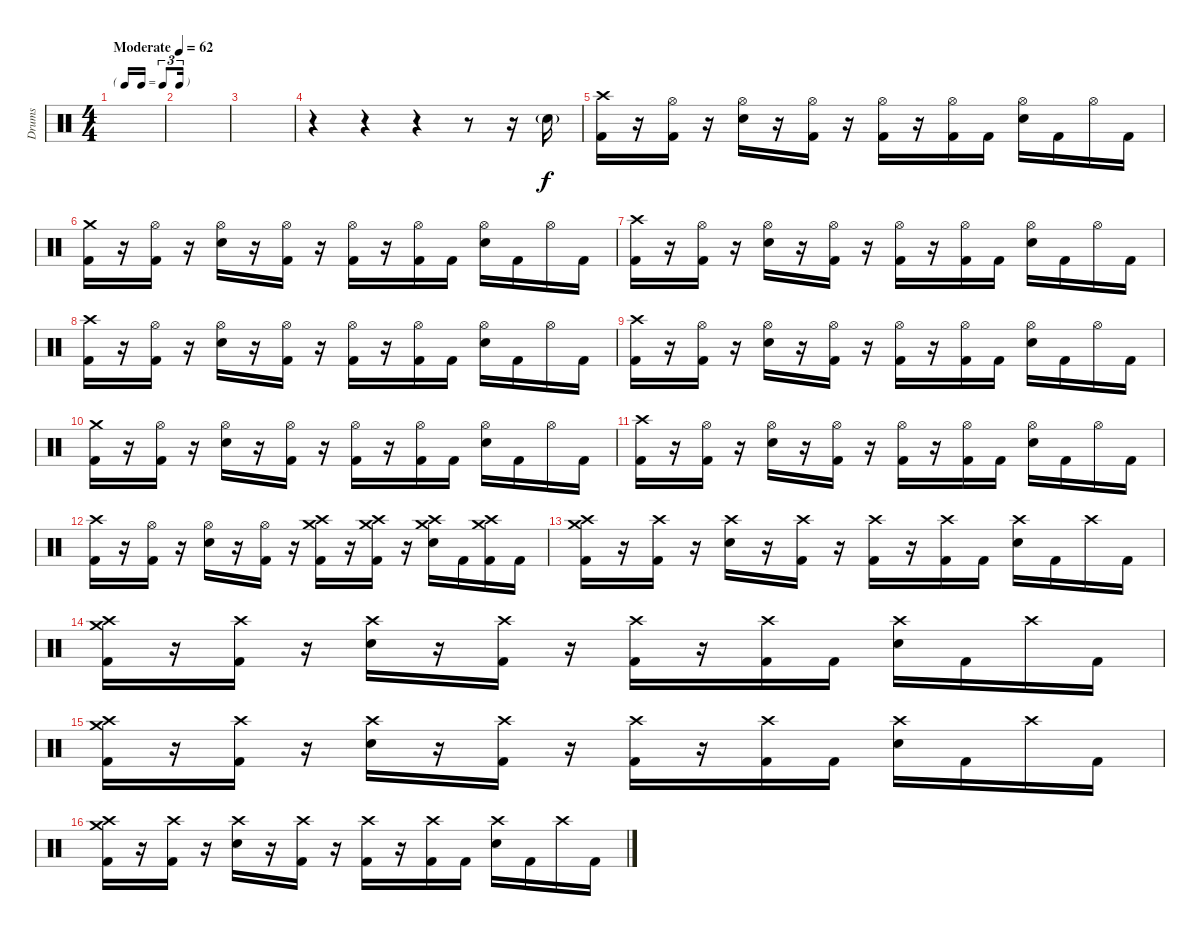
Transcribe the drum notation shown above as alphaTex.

\track ("Drums" "Drums") {instrument percussion}
\staff
\articulation defaults
\ts (4 4)
\tf triplet16th
\tempo (62 "Moderate")
\clef neutral
\ks c
|
|
|
r.4 r.4 r.4 r.8 r.16 "Electric Snare (hit)"{g}.16 |
("Kick (hit) 2" "Crash high (hit)").16{dy f} r.16 ("Kick (hit) 2" "Hi-Hat (open)").16 r.16 ("Electric Snare (hit)" "Hi-Hat (open)").16 r.16 ("Kick (hit) 2" "Hi-Hat (open)").16 r.16 ("Kick (hit) 2" "Hi-Hat (open)").16 r.16 ("Kick (hit) 2" "Hi-Hat (open)").16 "Kick (hit) 2".16 ("Electric Snare (hit)" "Hi-Hat (open)").16 "Kick (hit) 2".16 "Hi-Hat (open)".16 "Kick (hit) 2".16 |
("Kick (hit) 2" "Crash medium (hit)").16 r.16 ("Kick (hit) 2" "Hi-Hat (open)").16 r.16 ("Electric Snare (hit)" "Hi-Hat (open)").16 r.16 ("Kick (hit) 2" "Hi-Hat (open)").16 r.16 ("Kick (hit) 2" "Hi-Hat (open)").16 r.16 ("Kick (hit) 2" "Hi-Hat (open)").16 "Kick (hit) 2".16 ("Electric Snare (hit)" "Hi-Hat (open)").16 "Kick (hit) 2".16 "Hi-Hat (open)".16 "Kick (hit) 2".16 |
("Kick (hit) 2" "Crash high (hit)").16 r.16 ("Kick (hit) 2" "Hi-Hat (open)").16 r.16 ("Electric Snare (hit)" "Hi-Hat (open)").16 r.16 ("Kick (hit) 2" "Hi-Hat (open)").16 r.16 ("Kick (hit) 2" "Hi-Hat (open)").16 r.16 ("Kick (hit) 2" "Hi-Hat (open)").16 "Kick (hit) 2".16 ("Electric Snare (hit)" "Hi-Hat (open)").16 "Kick (hit) 2".16 "Hi-Hat (open)".16 "Kick (hit) 2".16 |
("Kick (hit) 2" "Crash high (hit)").16 r.16 ("Kick (hit) 2" "Hi-Hat (open)").16 r.16 ("Electric Snare (hit)" "Hi-Hat (open)").16 r.16 ("Kick (hit) 2" "Hi-Hat (open)").16 r.16 ("Kick (hit) 2" "Hi-Hat (open)").16 r.16 ("Kick (hit) 2" "Hi-Hat (open)").16 "Kick (hit) 2".16 ("Electric Snare (hit)" "Hi-Hat (open)").16 "Kick (hit) 2".16 "Hi-Hat (open)".16 "Kick (hit) 2".16 |
("Kick (hit) 2" "Crash high (hit)").16 r.16 ("Kick (hit) 2" "Hi-Hat (open)").16 r.16 ("Electric Snare (hit)" "Hi-Hat (open)").16 r.16 ("Kick (hit) 2" "Hi-Hat (open)").16 r.16 ("Kick (hit) 2" "Hi-Hat (open)").16 r.16 ("Kick (hit) 2" "Hi-Hat (open)").16 "Kick (hit) 2".16 ("Electric Snare (hit)" "Hi-Hat (open)").16 "Kick (hit) 2".16 "Hi-Hat (open)".16 "Kick (hit) 2".16 |
("Kick (hit) 2" "Crash medium (hit)").16 r.16 ("Kick (hit) 2" "Hi-Hat (open)").16 r.16 ("Electric Snare (hit)" "Hi-Hat (open)").16 r.16 ("Kick (hit) 2" "Hi-Hat (open)").16 r.16 ("Kick (hit) 2" "Hi-Hat (open)").16 r.16 ("Kick (hit) 2" "Hi-Hat (open)").16 "Kick (hit) 2".16 ("Electric Snare (hit)" "Hi-Hat (open)").16 "Kick (hit) 2".16 "Hi-Hat (open)".16 "Kick (hit) 2".16 |
("Kick (hit) 2" "Crash high (hit)").16 r.16 ("Kick (hit) 2" "Hi-Hat (open)").16 r.16 ("Electric Snare (hit)" "Hi-Hat (open)").16 r.16 ("Kick (hit) 2" "Hi-Hat (open)").16 r.16 ("Kick (hit) 2" "Hi-Hat (open)").16 r.16 ("Kick (hit) 2" "Hi-Hat (open)").16 "Kick (hit) 2".16 ("Electric Snare (hit)" "Hi-Hat (open)").16 "Kick (hit) 2".16 "Hi-Hat (open)".16 "Kick (hit) 2".16 |
("Kick (hit) 2" "Crash high (hit)").16 r.16 ("Kick (hit) 2" "Hi-Hat (open)").16 r.16 ("Electric Snare (hit)" "Hi-Hat (open)").16 r.16 ("Kick (hit) 2" "Hi-Hat (open)").16 r.16 ("Kick (hit) 2" "Crash high (hit)" "Crash medium (hit)").16 r.16 ("Kick (hit) 2" "Crash high (hit)" "Crash medium (hit)").16 r.16 ("Electric Snare (hit)" "Crash high (hit)" "Crash medium (hit)").16 "Kick (hit) 2".16 ("Kick (hit) 2" "Crash high (hit)" "Crash medium (hit)").16 "Kick (hit) 2".16 |
("Kick (hit) 2" "Crash high (hit)" "Crash medium (hit)").16 r.16 ("Kick (hit) 2" "Crash high (hit)").16 r.16 ("Electric Snare (hit)" "Crash high (hit)").16 r.16 ("Kick (hit) 2" "Crash high (hit)").16 r.16 ("Kick (hit) 2" "Crash high (hit)").16 r.16 ("Kick (hit) 2" "Crash high (hit)").16 "Kick (hit) 2".16 ("Electric Snare (hit)" "Crash high (hit)").16 "Kick (hit) 2".16 "Crash high (hit)".16 "Kick (hit) 2".16 |
("Kick (hit) 2" "Crash medium (hit)" "Crash high (hit)").16 r.16 ("Kick (hit) 2" "Crash high (hit)").16 r.16 ("Electric Snare (hit)" "Crash high (hit)").16 r.16 ("Kick (hit) 2" "Crash high (hit)").16 r.16 ("Kick (hit) 2" "Crash high (hit)").16 r.16 ("Kick (hit) 2" "Crash high (hit)").16 "Kick (hit) 2".16 ("Electric Snare (hit)" "Crash high (hit)").16 "Kick (hit) 2".16 "Crash high (hit)".16 "Kick (hit) 2".16 |
("Kick (hit) 2" "Crash high (hit)" "Crash medium (hit)").16 r.16 ("Kick (hit) 2" "Crash high (hit)").16 r.16 ("Electric Snare (hit)" "Crash high (hit)").16 r.16 ("Kick (hit) 2" "Crash high (hit)").16 r.16 ("Kick (hit) 2" "Crash high (hit)").16 r.16 ("Kick (hit) 2" "Crash high (hit)").16 "Kick (hit) 2".16 ("Electric Snare (hit)" "Crash high (hit)").16 "Kick (hit) 2".16 "Crash high (hit)".16 "Kick (hit) 2".16 |
("Kick (hit) 2" "Crash high (hit)" "Crash medium (hit)").16 r.16 ("Kick (hit) 2" "Crash high (hit)").16 r.16 ("Electric Snare (hit)" "Crash high (hit)").16 r.16 ("Kick (hit) 2" "Crash high (hit)").16 r.16 ("Kick (hit) 2" "Crash high (hit)").16 r.16 ("Kick (hit) 2" "Crash high (hit)").16 "Kick (hit) 2".16 ("Electric Snare (hit)" "Crash high (hit)").16 "Kick (hit) 2".16 "Crash high (hit)".16 "Kick (hit) 2".16
